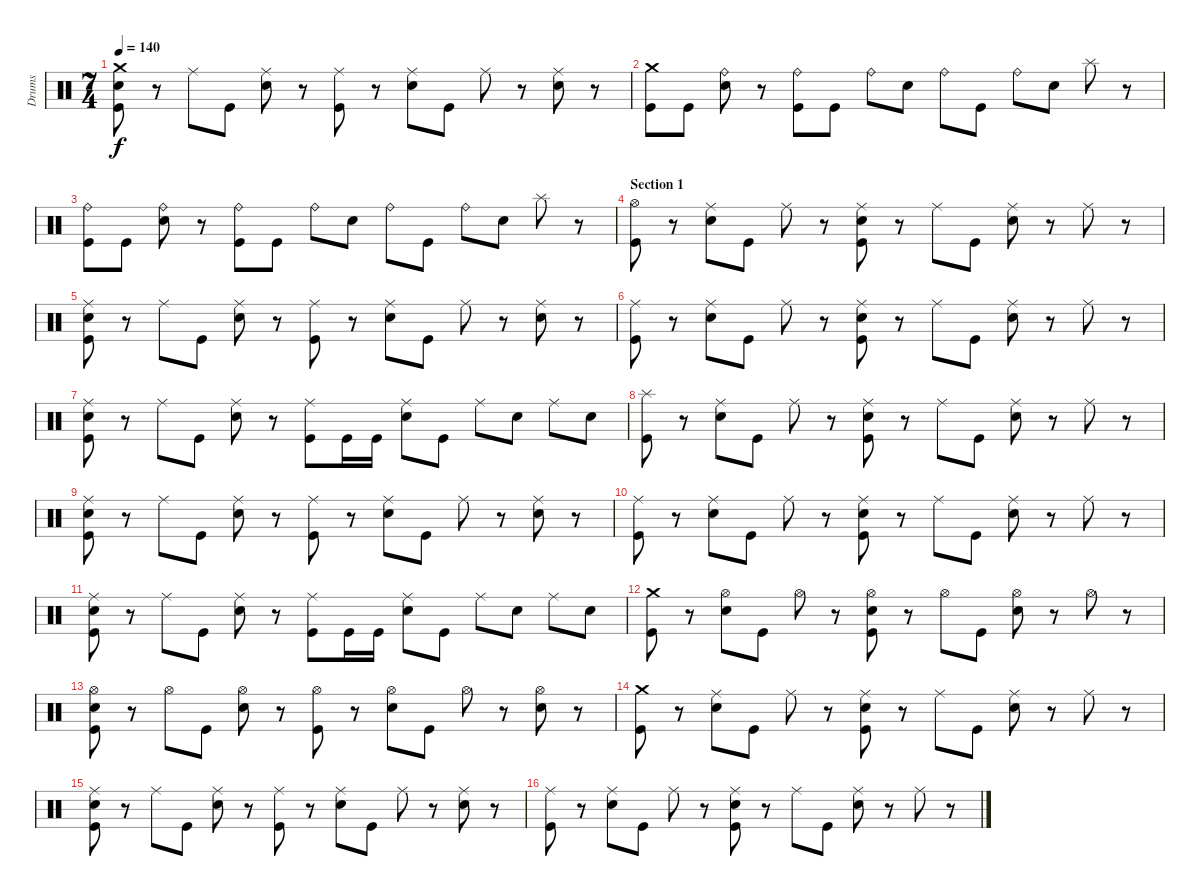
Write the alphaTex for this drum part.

\track ("Drums" "Drums") {instrument percussion}
\staff {score}
\articulation defaults
\ts (7 4)
\tempo 140
\clef neutral
\ks c
("Crash medium (hit)" "Electric Snare (hit)" "Kick (hit)").8{dy f} r.8 "Ride (middle)".8 "Kick (hit)".8 ("Ride (middle)" "Electric Snare (hit)").8 r.8 ("Ride (middle)" "Kick (hit)").8 r.8 ("Ride (middle)" "Electric Snare (hit)").8 "Kick (hit)".8 "Ride (middle)".8 r.8 ("Ride (middle)" "Electric Snare (hit)").8 r.8 |
("Crash medium (hit)" "Kick (hit)").8 "Kick (hit)".8 ("Ride (bell)" "Electric Snare (hit)").8 r.8 ("Ride (bell)" "Kick (hit)").8 "Kick (hit)".8 "Ride (bell)".8 "Electric Snare (hit)".8 "Ride (bell)".8 "Kick (hit)".8 "Ride (bell)".8 "Electric Snare (hit)".8 "Splash (hit)".8 r.8 |
("Ride (bell)" "Kick (hit)").8 "Kick (hit)".8 ("Ride (bell)" "Electric Snare (hit)").8 r.8 ("Ride (bell)" "Kick (hit)").8 "Kick (hit)".8 "Ride (bell)".8 "Electric Snare (hit)".8 "Ride (bell)".8 "Kick (hit)".8 "Ride (bell)".8 "Electric Snare (hit)".8 "Splash (hit)".8 r.8 |
\section ("" "Section 1")
("Hi-Hat (open)" "Kick (hit)").8 r.8 ("Ride (middle)" "Electric Snare (hit)").8 "Kick (hit)".8 "Ride (middle)".8 r.8 ("Ride (middle)" "Electric Snare (hit)" "Kick (hit)").8 r.8 "Ride (middle)".8 "Kick (hit)".8 ("Ride (middle)" "Electric Snare (hit)").8 r.8 "Ride (middle)".8 r.8 |
("Ride (middle)" "Electric Snare (hit)" "Kick (hit)").8 r.8 "Ride (middle)".8 "Kick (hit)".8 ("Ride (middle)" "Electric Snare (hit)").8 r.8 ("Ride (middle)" "Kick (hit)").8 r.8 ("Ride (middle)" "Electric Snare (hit)").8 "Kick (hit)".8 "Ride (middle)".8 r.8 ("Ride (middle)" "Electric Snare (hit)").8 r.8 |
("Ride (middle)" "Kick (hit)").8 r.8 ("Ride (middle)" "Electric Snare (hit)").8 "Kick (hit)".8 "Ride (middle)".8 r.8 ("Ride (middle)" "Electric Snare (hit)" "Kick (hit)").8 r.8 "Ride (middle)".8 "Kick (hit)".8 ("Ride (middle)" "Electric Snare (hit)").8 r.8 "Ride (middle)".8 r.8 |
("Ride (middle)" "Electric Snare (hit)" "Kick (hit)").8 r.8 "Ride (middle)".8 "Kick (hit)".8 ("Ride (middle)" "Electric Snare (hit)").8 r.8 ("Ride (middle)" "Kick (hit)").8 "Kick (hit)".16 "Kick (hit)".16 ("Ride (middle)" "Electric Snare (hit)").8 "Kick (hit)".8 "Ride (middle)".8 "Electric Snare (hit)".8 "Ride (middle)".8 "Electric Snare (hit)".8 |
("Splash (hit)" "Kick (hit)").8 r.8 ("Ride (middle)" "Electric Snare (hit)").8 "Kick (hit)".8 "Ride (middle)".8 r.8 ("Ride (middle)" "Electric Snare (hit)" "Kick (hit)").8 r.8 "Ride (middle)".8 "Kick (hit)".8 ("Ride (middle)" "Electric Snare (hit)").8 r.8 "Ride (middle)".8 r.8 |
("Ride (middle)" "Electric Snare (hit)" "Kick (hit)").8 r.8 "Ride (middle)".8 "Kick (hit)".8 ("Ride (middle)" "Electric Snare (hit)").8 r.8 ("Ride (middle)" "Kick (hit)").8 r.8 ("Ride (middle)" "Electric Snare (hit)").8 "Kick (hit)".8 "Ride (middle)".8 r.8 ("Ride (middle)" "Electric Snare (hit)").8 r.8 |
("Ride (middle)" "Kick (hit)").8 r.8 ("Ride (middle)" "Electric Snare (hit)").8 "Kick (hit)".8 "Ride (middle)".8 r.8 ("Ride (middle)" "Electric Snare (hit)" "Kick (hit)").8 r.8 "Ride (middle)".8 "Kick (hit)".8 ("Ride (middle)" "Electric Snare (hit)").8 r.8 "Ride (middle)".8 r.8 |
("Ride (middle)" "Electric Snare (hit)" "Kick (hit)").8 r.8 "Ride (middle)".8 "Kick (hit)".8 ("Ride (middle)" "Electric Snare (hit)").8 r.8 ("Ride (middle)" "Kick (hit)").8 "Kick (hit)".16 "Kick (hit)".16 ("Ride (middle)" "Electric Snare (hit)").8 "Kick (hit)".8 "Ride (middle)".8 "Electric Snare (hit)".8 "Ride (middle)".8 "Electric Snare (hit)".8 |
("Crash medium (hit)" "Kick (hit)").8 r.8 ("Hi-Hat (open)" "Electric Snare (hit)").8 "Kick (hit)".8 "Hi-Hat (open)".8 r.8 ("Hi-Hat (open)" "Electric Snare (hit)" "Kick (hit)").8 r.8 "Hi-Hat (open)".8 "Kick (hit)".8 ("Hi-Hat (open)" "Electric Snare (hit)").8 r.8 "Hi-Hat (open)".8 r.8 |
("Hi-Hat (open)" "Electric Snare (hit)" "Kick (hit)").8 r.8 "Hi-Hat (open)".8 "Kick (hit)".8 ("Hi-Hat (open)" "Electric Snare (hit)").8 r.8 ("Hi-Hat (open)" "Kick (hit)").8 r.8 ("Hi-Hat (open)" "Electric Snare (hit)").8 "Kick (hit)".8 "Hi-Hat (open)".8 r.8 ("Hi-Hat (open)" "Electric Snare (hit)").8 r.8 |
("Crash medium (hit)" "Kick (hit)").8 r.8 ("Ride (middle)" "Electric Snare (hit)").8 "Kick (hit)".8 "Ride (middle)".8 r.8 ("Ride (middle)" "Electric Snare (hit)" "Kick (hit)").8 r.8 "Ride (middle)".8 "Kick (hit)".8 ("Ride (middle)" "Electric Snare (hit)").8 r.8 "Ride (middle)".8 r.8 |
("Ride (middle)" "Electric Snare (hit)" "Kick (hit)").8 r.8 "Ride (middle)".8 "Kick (hit)".8 ("Ride (middle)" "Electric Snare (hit)").8 r.8 ("Ride (middle)" "Kick (hit)").8 r.8 ("Ride (middle)" "Electric Snare (hit)").8 "Kick (hit)".8 "Ride (middle)".8 r.8 ("Ride (middle)" "Electric Snare (hit)").8 r.8 |
("Ride (middle)" "Kick (hit)").8 r.8 ("Ride (middle)" "Electric Snare (hit)").8 "Kick (hit)".8 "Ride (middle)".8 r.8 ("Ride (middle)" "Electric Snare (hit)" "Kick (hit)").8 r.8 "Ride (middle)".8 "Kick (hit)".8 ("Ride (middle)" "Electric Snare (hit)").8 r.8 "Ride (middle)".8 r.8
